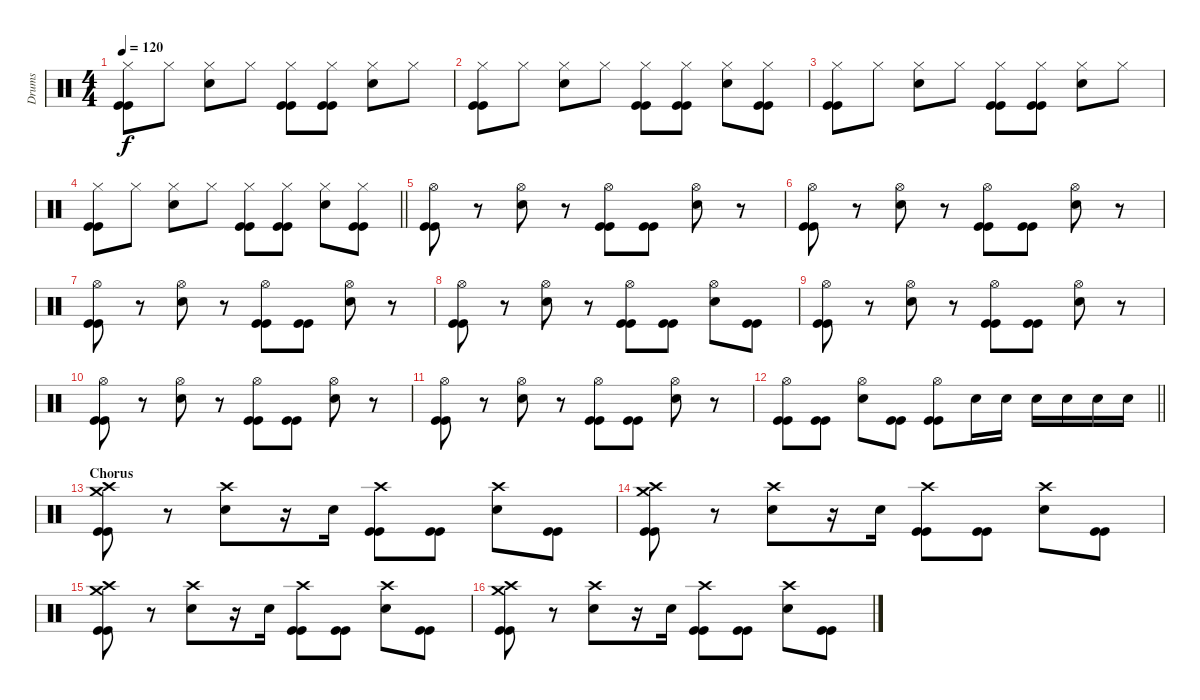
\track ("Drums" "Drums") {instrument percussion}
\staff {score}
\articulation defaults
\ts (4 4)
\tempo 120
\clef neutral
\ks c
("Hi-Hat (closed)" "Kick (hit)" "Kick (hit)").8{dy f} "Hi-Hat (closed)".8 ("Hi-Hat (closed)" "Snare (hit) 2").8 "Hi-Hat (closed)".8 ("Hi-Hat (closed)" "Kick (hit)" "Kick (hit)").8 ("Hi-Hat (closed)" "Kick (hit)" "Kick (hit)").8 ("Hi-Hat (closed)" "Snare (hit) 2").8 "Hi-Hat (closed)".8 |
("Hi-Hat (closed)" "Kick (hit)" "Kick (hit)").8 "Hi-Hat (closed)".8 ("Hi-Hat (closed)" "Snare (hit) 2").8 "Hi-Hat (closed)".8 ("Hi-Hat (closed)" "Kick (hit)" "Kick (hit)").8 ("Hi-Hat (closed)" "Kick (hit)" "Kick (hit)").8 ("Hi-Hat (closed)" "Snare (hit) 2").8 ("Hi-Hat (closed)" "Kick (hit)" "Kick (hit)").8 |
("Hi-Hat (closed)" "Kick (hit)" "Kick (hit)").8 "Hi-Hat (closed)".8 ("Hi-Hat (closed)" "Snare (hit) 2").8 "Hi-Hat (closed)".8 ("Hi-Hat (closed)" "Kick (hit)" "Kick (hit)").8 ("Hi-Hat (closed)" "Kick (hit)" "Kick (hit)").8 ("Hi-Hat (closed)" "Snare (hit) 2").8 "Hi-Hat (closed)".8 |
\barLineRight lightlight
("Hi-Hat (closed)" "Kick (hit)" "Kick (hit)").8 "Hi-Hat (closed)".8 ("Hi-Hat (closed)" "Snare (hit) 2").8 "Hi-Hat (closed)".8 ("Hi-Hat (closed)" "Kick (hit)" "Kick (hit)").8 ("Hi-Hat (closed)" "Kick (hit)" "Kick (hit)").8 ("Hi-Hat (closed)" "Snare (hit) 2").8 ("Hi-Hat (closed)" "Kick (hit)" "Kick (hit)").8 |
("Hi-Hat (open)" "Kick (hit)" "Kick (hit)").8 r.8 ("Hi-Hat (open)" "Snare (hit) 2").8 r.8 ("Hi-Hat (open)" "Kick (hit)" "Kick (hit)").8 ("Kick (hit)" "Kick (hit)").8 ("Hi-Hat (open)" "Snare (hit) 2").8 r.8 |
("Hi-Hat (open)" "Kick (hit)" "Kick (hit)").8 r.8 ("Hi-Hat (open)" "Snare (hit) 2").8 r.8 ("Hi-Hat (open)" "Kick (hit)" "Kick (hit)").8 ("Kick (hit)" "Kick (hit)").8 ("Hi-Hat (open)" "Snare (hit) 2").8 r.8 |
("Hi-Hat (open)" "Kick (hit)" "Kick (hit)").8 r.8 ("Hi-Hat (open)" "Snare (hit) 2").8 r.8 ("Hi-Hat (open)" "Kick (hit)" "Kick (hit)").8 ("Kick (hit)" "Kick (hit)").8 ("Hi-Hat (open)" "Snare (hit) 2").8 r.8 |
("Hi-Hat (open)" "Kick (hit)" "Kick (hit)").8 r.8 ("Hi-Hat (open)" "Snare (hit) 2").8 r.8 ("Hi-Hat (open)" "Kick (hit)" "Kick (hit)").8 ("Kick (hit)" "Kick (hit)").8 ("Hi-Hat (open)" "Snare (hit) 2").8 ("Kick (hit)" "Kick (hit)").8 |
("Hi-Hat (open)" "Kick (hit)" "Kick (hit)").8 r.8 ("Hi-Hat (open)" "Snare (hit) 2").8 r.8 ("Hi-Hat (open)" "Kick (hit)" "Kick (hit)").8 ("Kick (hit)" "Kick (hit)").8 ("Hi-Hat (open)" "Snare (hit) 2").8 r.8 |
("Hi-Hat (open)" "Kick (hit)" "Kick (hit)").8 r.8 ("Hi-Hat (open)" "Snare (hit) 2").8 r.8 ("Hi-Hat (open)" "Kick (hit)" "Kick (hit)").8 ("Kick (hit)" "Kick (hit)").8 ("Hi-Hat (open)" "Snare (hit) 2").8 r.8 |
("Hi-Hat (open)" "Kick (hit)" "Kick (hit)").8 r.8 ("Hi-Hat (open)" "Snare (hit) 2").8 r.8 ("Hi-Hat (open)" "Kick (hit)" "Kick (hit)").8 ("Kick (hit)" "Kick (hit)").8 ("Hi-Hat (open)" "Snare (hit) 2").8 r.8 |
\barLineRight lightlight
("Hi-Hat (open)" "Kick (hit)" "Kick (hit)").8 ("Kick (hit)" "Kick (hit)").8 ("Hi-Hat (open)" "Snare (hit) 2").8 ("Kick (hit)" "Kick (hit)").8 ("Hi-Hat (open)" "Kick (hit)" "Kick (hit)").8 "Snare (hit) 2".16 "Snare (hit) 2".16 "Snare (hit) 2".16 "Snare (hit) 2".16 "Snare (hit) 2".16 "Snare (hit) 2".16 |
\section ("" "Chorus")
("Crash high (hit)" "Kick (hit)" "Kick (hit)" "Crash medium (hit)").8 r.8 ("Crash high (hit)" "Snare (hit) 2").8 r.16 "Snare (hit) 2".16 ("Crash high (hit)" "Kick (hit)" "Kick (hit)").8 ("Kick (hit)" "Kick (hit)").8 ("Crash high (hit)" "Snare (hit) 2").8 ("Kick (hit)" "Kick (hit)").8 |
("Crash high (hit)" "Kick (hit)" "Kick (hit)" "Crash medium (hit)").8 r.8 ("Crash high (hit)" "Snare (hit) 2").8 r.16 "Snare (hit) 2".16 ("Crash high (hit)" "Kick (hit)" "Kick (hit)").8 ("Kick (hit)" "Kick (hit)").8 ("Crash high (hit)" "Snare (hit) 2").8 ("Kick (hit)" "Kick (hit)").8 |
("Crash high (hit)" "Kick (hit)" "Kick (hit)" "Crash medium (hit)").8 r.8 ("Crash high (hit)" "Snare (hit) 2").8 r.16 "Snare (hit) 2".16 ("Crash high (hit)" "Kick (hit)" "Kick (hit)").8 ("Kick (hit)" "Kick (hit)").8 ("Crash high (hit)" "Snare (hit) 2").8 ("Kick (hit)" "Kick (hit)").8 |
("Crash high (hit)" "Kick (hit)" "Kick (hit)" "Crash medium (hit)").8 r.8 ("Crash high (hit)" "Snare (hit) 2").8 r.16 "Snare (hit) 2".16 ("Crash high (hit)" "Kick (hit)" "Kick (hit)").8 ("Kick (hit)" "Kick (hit)").8 ("Crash high (hit)" "Snare (hit) 2").8 ("Kick (hit)" "Kick (hit)").8
